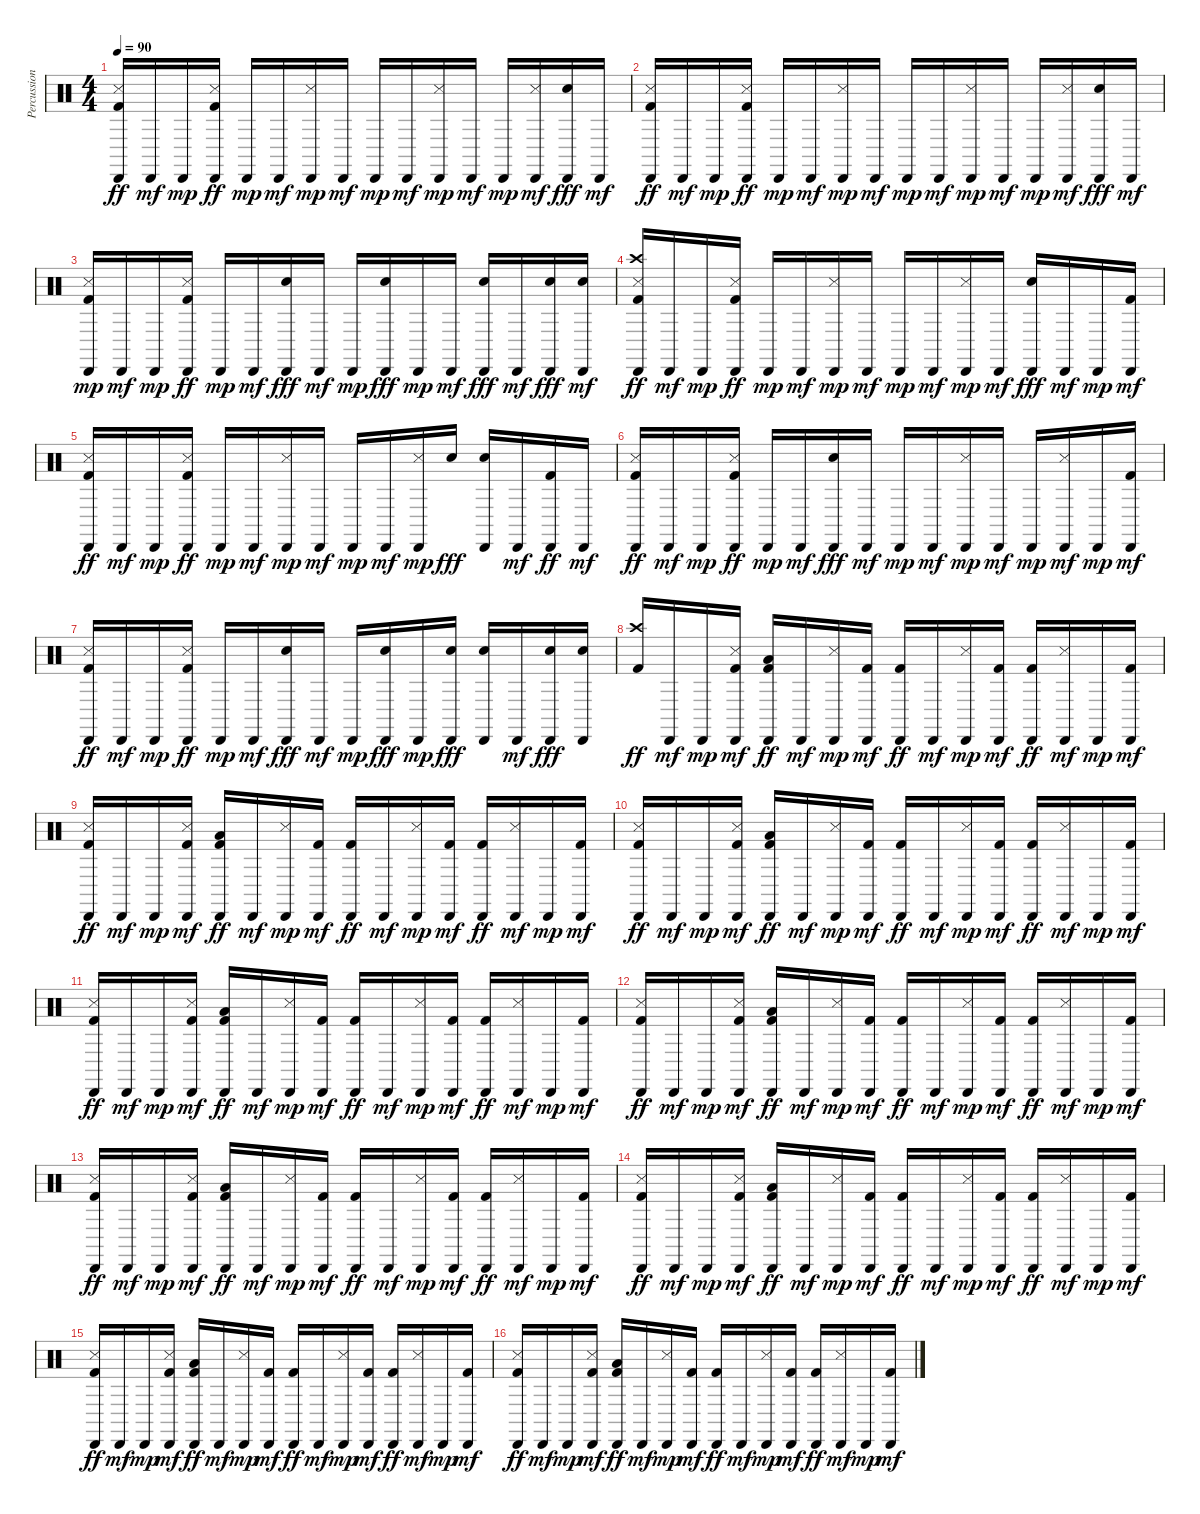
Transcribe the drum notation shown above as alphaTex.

\track ("Percussions" "Percussion") {instrument percussion}
\staff {score}
\articulation defaults
\ts (4 4)
\tempo 90
\clef neutral
\ks c
("Cabasa (hit)" "Snare (side stick) 3" "Kick (hit) 2").16{dy ff} "Cabasa (hit)".16{dy mf} "Cabasa (hit)".16{dy mp} ("Cabasa (hit)" "Snare (side stick) 3" "Kick (hit) 2").16{dy ff} "Cabasa (hit)".16{dy mp} "Cabasa (hit)".16{dy mf} ("Cabasa (hit)" "Snare (side stick) 3").16{dy mp} "Cabasa (hit)".16{dy mf} "Cabasa (hit)".16{dy mp} "Cabasa (hit)".16{dy mf} ("Cabasa (hit)" "Snare (side stick) 3").16{dy mp} "Cabasa (hit)".16{dy mf} "Cabasa (hit)".16{dy mp} ("Cabasa (hit)" "Snare (side stick) 3").16{dy mf} ("Cabasa (hit)" "Snare (hit) 2").16{dy fff} "Cabasa (hit)".16{dy mf} |
("Cabasa (hit)" "Snare (side stick) 3" "Kick (hit) 2").16{dy ff} "Cabasa (hit)".16{dy mf} "Cabasa (hit)".16{dy mp} ("Cabasa (hit)" "Snare (side stick) 3" "Kick (hit) 2").16{dy ff} "Cabasa (hit)".16{dy mp} "Cabasa (hit)".16{dy mf} ("Cabasa (hit)" "Snare (side stick) 3").16{dy mp} "Cabasa (hit)".16{dy mf} "Cabasa (hit)".16{dy mp} "Cabasa (hit)".16{dy mf} ("Cabasa (hit)" "Snare (side stick) 3").16{dy mp} "Cabasa (hit)".16{dy mf} "Cabasa (hit)".16{dy mp} ("Cabasa (hit)" "Snare (side stick) 3").16{dy mf} ("Cabasa (hit)" "Snare (hit) 2").16{dy fff} "Cabasa (hit)".16{dy mf} |
("Kick (hit) 2" "Cabasa (hit)" "Snare (side stick) 3").16{dy mp} "Cabasa (hit)".16{dy mf} "Cabasa (hit)".16{dy mp} ("Cabasa (hit)" "Snare (side stick) 3" "Kick (hit) 2").16{dy ff} "Cabasa (hit)".16{dy mp} "Cabasa (hit)".16{dy mf} ("Cabasa (hit)" "Snare (hit) 2").16{dy fff} "Cabasa (hit)".16{dy mf} "Cabasa (hit)".16{dy mp} ("Cabasa (hit)" "Snare (hit) 2").16{dy fff} "Cabasa (hit)".16{dy mp} "Cabasa (hit)".16{dy mf} ("Cabasa (hit)" "Snare (hit) 2").16{dy fff} "Cabasa (hit)".16{dy mf} ("Cabasa (hit)" "Snare (hit) 2").16{dy fff} ("Snare (hit) 2" "Cabasa (hit)").16{dy mf} |
("Cabasa (hit)" "Crash high (hit)" "Snare (side stick) 3" "Kick (hit) 2").16{dy ff} "Cabasa (hit)".16{dy mf} "Cabasa (hit)".16{dy mp} ("Cabasa (hit)" "Snare (side stick) 3" "Kick (hit) 2").16{dy ff} "Cabasa (hit)".16{dy mp} "Cabasa (hit)".16{dy mf} ("Cabasa (hit)" "Snare (side stick) 3").16{dy mp} "Cabasa (hit)".16{dy mf} "Cabasa (hit)".16{dy mp} "Cabasa (hit)".16{dy mf} ("Cabasa (hit)" "Snare (side stick) 3").16{dy mp} "Cabasa (hit)".16{dy mf} ("Cabasa (hit)" "Snare (hit) 2").16{dy fff} "Cabasa (hit)".16{dy mf} "Cabasa (hit)".16{dy mp} ("Cabasa (hit)" "Kick (hit) 2").16{dy mf} |
("Cabasa (hit)" "Snare (side stick) 3" "Kick (hit) 2").16{dy ff} "Cabasa (hit)".16{dy mf} "Cabasa (hit)".16{dy mp} ("Cabasa (hit)" "Snare (side stick) 3" "Kick (hit) 2").16{dy ff} "Cabasa (hit)".16{dy mp} "Cabasa (hit)".16{dy mf} ("Cabasa (hit)" "Snare (side stick) 3").16{dy mp} "Cabasa (hit)".16{dy mf} "Cabasa (hit)".16{dy mp} "Cabasa (hit)".16{dy mf} ("Cabasa (hit)" "Snare (side stick) 3").16{dy mp} "Snare (hit) 2".16{dy fff} ("Cabasa (hit)" "Snare (hit) 2").16 "Cabasa (hit)".16{dy mf} ("Cabasa (hit)" "Kick (hit) 2").16{dy ff} "Cabasa (hit)".16{dy mf} |
("Cabasa (hit)" "Snare (side stick) 3" "Kick (hit) 2").16{dy ff} "Cabasa (hit)".16{dy mf} "Cabasa (hit)".16{dy mp} ("Cabasa (hit)" "Snare (side stick) 3" "Kick (hit) 2").16{dy ff} "Cabasa (hit)".16{dy mp} "Cabasa (hit)".16{dy mf} ("Cabasa (hit)" "Snare (hit) 2").16{dy fff} "Cabasa (hit)".16{dy mf} "Cabasa (hit)".16{dy mp} "Cabasa (hit)".16{dy mf} ("Snare (side stick) 3" "Cabasa (hit)").16{dy mp} "Cabasa (hit)".16{dy mf} "Cabasa (hit)".16{dy mp} ("Cabasa (hit)" "Snare (side stick) 3").16{dy mf} "Cabasa (hit)".16{dy mp} ("Cabasa (hit)" "Kick (hit) 2").16{dy mf} |
("Cabasa (hit)" "Snare (side stick) 3" "Kick (hit) 2").16{dy ff} "Cabasa (hit)".16{dy mf} "Cabasa (hit)".16{dy mp} ("Cabasa (hit)" "Snare (side stick) 3" "Kick (hit) 2").16{dy ff} "Cabasa (hit)".16{dy mp} "Cabasa (hit)".16{dy mf} ("Cabasa (hit)" "Snare (hit) 2").16{dy fff} "Cabasa (hit)".16{dy mf} "Cabasa (hit)".16{dy mp} ("Cabasa (hit)" "Snare (hit) 2").16{dy fff} "Cabasa (hit)".16{dy mp} ("Cabasa (hit)" "Snare (hit) 2").16{dy fff} ("Cabasa (hit)" "Snare (hit) 2").16 "Cabasa (hit)".16{dy mf} ("Cabasa (hit)" "Snare (hit) 2").16{dy fff} ("Cabasa (hit)" "Snare (hit) 2").16 |
("Crash high (hit)" "Kick (hit) 2").16{dy ff} "Cabasa (hit)".16{dy mf} "Cabasa (hit)".16{dy mp} ("Cabasa (hit)" "Snare (side stick) 3" "Kick (hit) 2").16{dy mf} ("Low Floor Tom (hit)" "Cabasa (hit)" "Kick (hit) 2").16{dy ff} "Cabasa (hit)".16{dy mf} ("Cabasa (hit)" "Snare (side stick) 3").16{dy mp} ("Cabasa (hit)" "Kick (hit) 2").16{dy mf} ("Cabasa (hit)" "Kick (hit) 2").16{dy ff} "Cabasa (hit)".16{dy mf} ("Cabasa (hit)" "Snare (side stick) 3").16{dy mp} ("Cabasa (hit)" "Kick (hit) 2").16{dy mf} ("Cabasa (hit)" "Kick (hit) 2").16{dy ff} ("Cabasa (hit)" "Snare (side stick) 3").16{dy mf} "Cabasa (hit)".16{dy mp} ("Cabasa (hit)" "Kick (hit) 2").16{dy mf} |
("Cabasa (hit)" "Snare (side stick) 3" "Kick (hit) 2").16{dy ff} "Cabasa (hit)".16{dy mf} "Cabasa (hit)".16{dy mp} ("Cabasa (hit)" "Snare (side stick) 3" "Kick (hit) 2").16{dy mf} ("Low Floor Tom (hit)" "Cabasa (hit)" "Kick (hit) 2").16{dy ff} "Cabasa (hit)".16{dy mf} ("Cabasa (hit)" "Snare (side stick) 3").16{dy mp} ("Cabasa (hit)" "Kick (hit) 2").16{dy mf} ("Cabasa (hit)" "Kick (hit) 2").16{dy ff} "Cabasa (hit)".16{dy mf} ("Cabasa (hit)" "Snare (side stick) 3").16{dy mp} ("Cabasa (hit)" "Kick (hit) 2").16{dy mf} ("Cabasa (hit)" "Kick (hit) 2").16{dy ff} ("Cabasa (hit)" "Snare (side stick) 3").16{dy mf} "Cabasa (hit)".16{dy mp} ("Cabasa (hit)" "Kick (hit) 2").16{dy mf} |
("Cabasa (hit)" "Snare (side stick) 3" "Kick (hit) 2").16{dy ff} "Cabasa (hit)".16{dy mf} "Cabasa (hit)".16{dy mp} ("Cabasa (hit)" "Snare (side stick) 3" "Kick (hit) 2").16{dy mf} ("Low Floor Tom (hit)" "Cabasa (hit)" "Kick (hit) 2").16{dy ff} "Cabasa (hit)".16{dy mf} ("Cabasa (hit)" "Snare (side stick) 3").16{dy mp} ("Cabasa (hit)" "Kick (hit) 2").16{dy mf} ("Cabasa (hit)" "Kick (hit) 2").16{dy ff} "Cabasa (hit)".16{dy mf} ("Cabasa (hit)" "Snare (side stick) 3").16{dy mp} ("Cabasa (hit)" "Kick (hit) 2").16{dy mf} ("Cabasa (hit)" "Kick (hit) 2").16{dy ff} ("Cabasa (hit)" "Snare (side stick) 3").16{dy mf} "Cabasa (hit)".16{dy mp} ("Cabasa (hit)" "Kick (hit) 2").16{dy mf} |
("Cabasa (hit)" "Snare (side stick) 3" "Kick (hit) 2").16{dy ff} "Cabasa (hit)".16{dy mf} "Cabasa (hit)".16{dy mp} ("Cabasa (hit)" "Snare (side stick) 3" "Kick (hit) 2").16{dy mf} ("Low Floor Tom (hit)" "Cabasa (hit)" "Kick (hit) 2").16{dy ff} "Cabasa (hit)".16{dy mf} ("Cabasa (hit)" "Snare (side stick) 3").16{dy mp} ("Cabasa (hit)" "Kick (hit) 2").16{dy mf} ("Cabasa (hit)" "Kick (hit) 2").16{dy ff} "Cabasa (hit)".16{dy mf} ("Cabasa (hit)" "Snare (side stick) 3").16{dy mp} ("Cabasa (hit)" "Kick (hit) 2").16{dy mf} ("Cabasa (hit)" "Kick (hit) 2").16{dy ff} ("Cabasa (hit)" "Snare (side stick) 3").16{dy mf} "Cabasa (hit)".16{dy mp} ("Cabasa (hit)" "Kick (hit) 2").16{dy mf} |
("Cabasa (hit)" "Snare (side stick) 3" "Kick (hit) 2").16{dy ff} "Cabasa (hit)".16{dy mf} "Cabasa (hit)".16{dy mp} ("Cabasa (hit)" "Snare (side stick) 3" "Kick (hit) 2").16{dy mf} ("Low Floor Tom (hit)" "Cabasa (hit)" "Kick (hit) 2").16{dy ff} "Cabasa (hit)".16{dy mf} ("Cabasa (hit)" "Snare (side stick) 3").16{dy mp} ("Cabasa (hit)" "Kick (hit) 2").16{dy mf} ("Cabasa (hit)" "Kick (hit) 2").16{dy ff} "Cabasa (hit)".16{dy mf} ("Cabasa (hit)" "Snare (side stick) 3").16{dy mp} ("Cabasa (hit)" "Kick (hit) 2").16{dy mf} ("Cabasa (hit)" "Kick (hit) 2").16{dy ff} ("Cabasa (hit)" "Snare (side stick) 3").16{dy mf} "Cabasa (hit)".16{dy mp} ("Cabasa (hit)" "Kick (hit) 2").16{dy mf} |
("Cabasa (hit)" "Snare (side stick) 3" "Kick (hit) 2").16{dy ff} "Cabasa (hit)".16{dy mf} "Cabasa (hit)".16{dy mp} ("Cabasa (hit)" "Snare (side stick) 3" "Kick (hit) 2").16{dy mf} ("Low Floor Tom (hit)" "Cabasa (hit)" "Kick (hit) 2").16{dy ff} "Cabasa (hit)".16{dy mf} ("Cabasa (hit)" "Snare (side stick) 3").16{dy mp} ("Cabasa (hit)" "Kick (hit) 2").16{dy mf} ("Cabasa (hit)" "Kick (hit) 2").16{dy ff} "Cabasa (hit)".16{dy mf} ("Cabasa (hit)" "Snare (side stick) 3").16{dy mp} ("Cabasa (hit)" "Kick (hit) 2").16{dy mf} ("Cabasa (hit)" "Kick (hit) 2").16{dy ff} ("Cabasa (hit)" "Snare (side stick) 3").16{dy mf} "Cabasa (hit)".16{dy mp} ("Cabasa (hit)" "Kick (hit) 2").16{dy mf} |
("Cabasa (hit)" "Snare (side stick) 3" "Kick (hit) 2").16{dy ff} "Cabasa (hit)".16{dy mf} "Cabasa (hit)".16{dy mp} ("Cabasa (hit)" "Snare (side stick) 3" "Kick (hit) 2").16{dy mf} ("Low Floor Tom (hit)" "Cabasa (hit)" "Kick (hit) 2").16{dy ff} "Cabasa (hit)".16{dy mf} ("Cabasa (hit)" "Snare (side stick) 3").16{dy mp} ("Cabasa (hit)" "Kick (hit) 2").16{dy mf} ("Cabasa (hit)" "Kick (hit) 2").16{dy ff} "Cabasa (hit)".16{dy mf} ("Cabasa (hit)" "Snare (side stick) 3").16{dy mp} ("Cabasa (hit)" "Kick (hit) 2").16{dy mf} ("Cabasa (hit)" "Kick (hit) 2").16{dy ff} ("Cabasa (hit)" "Snare (side stick) 3").16{dy mf} "Cabasa (hit)".16{dy mp} ("Cabasa (hit)" "Kick (hit) 2").16{dy mf} |
("Cabasa (hit)" "Snare (side stick) 3" "Kick (hit) 2").16{dy ff} "Cabasa (hit)".16{dy mf} "Cabasa (hit)".16{dy mp} ("Cabasa (hit)" "Snare (side stick) 3" "Kick (hit) 2").16{dy mf} ("Low Floor Tom (hit)" "Cabasa (hit)" "Kick (hit) 2").16{dy ff} "Cabasa (hit)".16{dy mf} ("Cabasa (hit)" "Snare (side stick) 3").16{dy mp} ("Cabasa (hit)" "Kick (hit) 2").16{dy mf} ("Cabasa (hit)" "Kick (hit) 2").16{dy ff} "Cabasa (hit)".16{dy mf} ("Cabasa (hit)" "Snare (side stick) 3").16{dy mp} ("Cabasa (hit)" "Kick (hit) 2").16{dy mf} ("Cabasa (hit)" "Kick (hit) 2").16{dy ff} ("Cabasa (hit)" "Snare (side stick) 3").16{dy mf} "Cabasa (hit)".16{dy mp} ("Cabasa (hit)" "Kick (hit) 2").16{dy mf} |
("Cabasa (hit)" "Snare (side stick) 3" "Kick (hit) 2").16{dy ff} "Cabasa (hit)".16{dy mf} "Cabasa (hit)".16{dy mp} ("Cabasa (hit)" "Snare (side stick) 3" "Kick (hit) 2").16{dy mf} ("Low Floor Tom (hit)" "Cabasa (hit)" "Kick (hit) 2").16{dy ff} "Cabasa (hit)".16{dy mf} ("Cabasa (hit)" "Snare (side stick) 3").16{dy mp} ("Cabasa (hit)" "Kick (hit) 2").16{dy mf} ("Cabasa (hit)" "Kick (hit) 2").16{dy ff} "Cabasa (hit)".16{dy mf} ("Cabasa (hit)" "Snare (side stick) 3").16{dy mp} ("Cabasa (hit)" "Kick (hit) 2").16{dy mf} ("Cabasa (hit)" "Kick (hit) 2").16{dy ff} ("Cabasa (hit)" "Snare (side stick) 3").16{dy mf} "Cabasa (hit)".16{dy mp} ("Cabasa (hit)" "Kick (hit) 2").16{dy mf}
